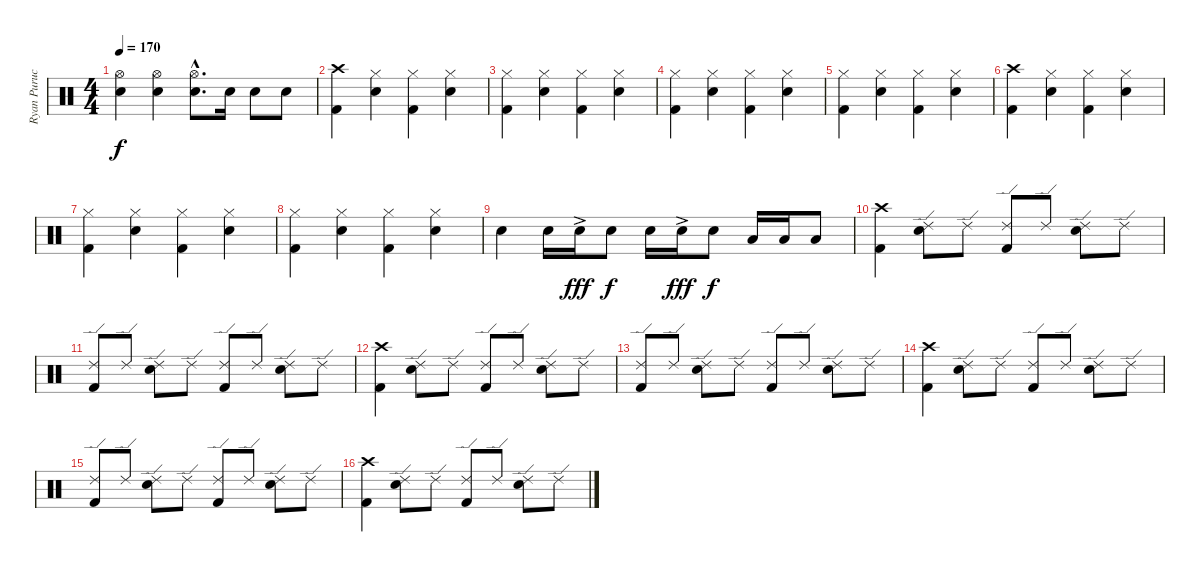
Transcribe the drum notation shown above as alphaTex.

\track ("Ryan Purucker" "Ryan Puruc") {instrument percussion}
\staff {score}
\articulation defaults
\ts (4 4)
\tempo 170
\clef neutral
\ks c
("Hi-Hat (open)" "Snare (hit) 2").4{dy f} ("Hi-Hat (open)" "Snare (hit) 2").4 ("Hi-Hat (open)"{hac} "Snare (hit) 2"{hac}).8{d} "Electric Snare (hit)".16 "Electric Snare (hit)".8 "Electric Snare (hit)".8 |
("Crash high (hit)" "Kick (hit) 2").4 ("Hi-Hat (closed)" "Snare (hit) 2").4 ("Hi-Hat (closed)" "Kick (hit) 2").4 ("Hi-Hat (closed)" "Snare (hit) 2").4 |
("Hi-Hat (closed)" "Kick (hit) 2").4 ("Hi-Hat (closed)" "Snare (hit) 2").4 ("Hi-Hat (closed)" "Kick (hit) 2").4 ("Hi-Hat (closed)" "Snare (hit) 2").4 |
("Hi-Hat (closed)" "Kick (hit) 2").4 ("Hi-Hat (closed)" "Snare (hit) 2").4 ("Hi-Hat (closed)" "Kick (hit) 2").4 ("Hi-Hat (closed)" "Snare (hit) 2").4 |
("Hi-Hat (closed)" "Kick (hit) 2").4 ("Hi-Hat (closed)" "Snare (hit) 2").4 ("Hi-Hat (closed)" "Kick (hit) 2").4 ("Hi-Hat (closed)" "Snare (hit) 2").4 |
("Crash high (hit)" "Kick (hit) 2").4 ("Hi-Hat (closed)" "Snare (hit) 2").4 ("Hi-Hat (closed)" "Kick (hit) 2").4 ("Hi-Hat (closed)" "Snare (hit) 2").4 |
("Hi-Hat (closed)" "Kick (hit) 2").4 ("Hi-Hat (closed)" "Snare (hit) 2").4 ("Hi-Hat (closed)" "Kick (hit) 2").4 ("Hi-Hat (closed)" "Snare (hit) 2").4 |
("Hi-Hat (closed)" "Kick (hit) 2").4 ("Hi-Hat (closed)" "Snare (hit) 2").4 ("Hi-Hat (closed)" "Kick (hit) 2").4 ("Hi-Hat (closed)" "Snare (hit) 2").4 |
"Electric Snare (hit)".4 "Electric Snare (hit)".16 "Electric Snare (hit)"{ac}.16{dy fff} "Electric Snare (hit)".8{dy f} "Electric Snare (hit)".16 "Electric Snare (hit)"{ac}.16{dy fff} "Electric Snare (hit)".8{dy f} "Low Tom (hit)".16 "Low Tom (hit)".16 "Low Tom (hit)".8 |
("Crash high (hit)" "Kick (hit) 2").4 ("Ride (edge) 2" "Snare (hit) 2").8 "Ride (edge) 2".8 ("Ride (edge) 2" "Kick (hit) 2").8 "Ride (edge) 2".8 ("Ride (edge) 2" "Snare (hit) 2").8 "Ride (edge) 2".8 |
("Ride (edge) 2" "Kick (hit) 2").8 "Ride (edge) 2".8 ("Ride (edge) 2" "Snare (hit) 2").8 "Ride (edge) 2".8 ("Ride (edge) 2" "Kick (hit) 2").8 "Ride (edge) 2".8 ("Ride (edge) 2" "Snare (hit) 2").8 "Ride (edge) 2".8 |
("Crash high (hit)" "Kick (hit) 2").4 ("Ride (edge) 2" "Snare (hit) 2").8 "Ride (edge) 2".8 ("Ride (edge) 2" "Kick (hit) 2").8 "Ride (edge) 2".8 ("Ride (edge) 2" "Snare (hit) 2").8 "Ride (edge) 2".8 |
("Ride (edge) 2" "Kick (hit) 2").8 "Ride (edge) 2".8 ("Ride (edge) 2" "Snare (hit) 2").8 "Ride (edge) 2".8 ("Ride (edge) 2" "Kick (hit) 2").8 "Ride (edge) 2".8 ("Ride (edge) 2" "Snare (hit) 2").8 "Ride (edge) 2".8 |
("Crash high (hit)" "Kick (hit) 2").4 ("Ride (edge) 2" "Snare (hit) 2").8 "Ride (edge) 2".8 ("Ride (edge) 2" "Kick (hit) 2").8 "Ride (edge) 2".8 ("Ride (edge) 2" "Snare (hit) 2").8 "Ride (edge) 2".8 |
("Ride (edge) 2" "Kick (hit) 2").8 "Ride (edge) 2".8 ("Ride (edge) 2" "Snare (hit) 2").8 "Ride (edge) 2".8 ("Ride (edge) 2" "Kick (hit) 2").8 "Ride (edge) 2".8 ("Ride (edge) 2" "Snare (hit) 2").8 "Ride (edge) 2".8 |
("Crash high (hit)" "Kick (hit) 2").4 ("Ride (edge) 2" "Snare (hit) 2").8 "Ride (edge) 2".8 ("Ride (edge) 2" "Kick (hit) 2").8 "Ride (edge) 2".8 ("Ride (edge) 2" "Snare (hit) 2").8 "Ride (edge) 2".8
